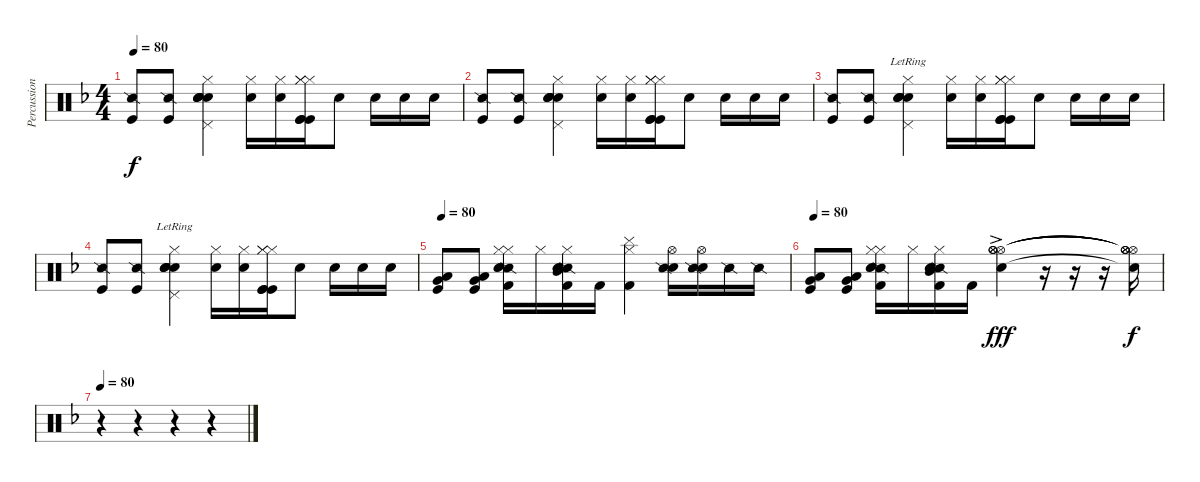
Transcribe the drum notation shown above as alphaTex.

\track ("Percussion" "Percussion") {instrument percussion}
\staff {score}
\articulation defaults
\ts (4 4)
\tempo 80
\clef neutral
\ks dminor
("Kick (hit)" "Snare (side stick) 2").8{dy f volume 14} ("Kick (hit)" "Snare (side stick) 2").8 ("Snare (hit) 2" "Snare (hit) 2" "Pedal Hi-Hat (hit)" "Hi-Hat (closed)" "Electric Snare (hit)" "Hand Clap (hit)").4 ("Hi-Hat (closed)" "Electric Snare (hit)").16 ("Hi-Hat (closed)" "Electric Snare (hit)").16 ("Hi-Hat (closed)" "Hi-Hat (closed)" "Hi-Hat (closed)" "Kick (hit)" "Kick (hit)" "Kick (hit)").16 "Hand Clap (hit)".8 "Snare (hit) 2".16 "Snare (hit) 2".16 "Snare (hit) 2".16 |
("Kick (hit)" "Snare (side stick) 2").8{volume 14} ("Kick (hit)" "Snare (side stick) 2").8 ("Snare (hit) 2" "Snare (hit) 2" "Pedal Hi-Hat (hit)" "Hi-Hat (closed)" "Electric Snare (hit)" "Hand Clap (hit)").4 ("Hi-Hat (closed)" "Electric Snare (hit)").16 ("Hi-Hat (closed)" "Electric Snare (hit)").16 ("Hi-Hat (closed)" "Hi-Hat (closed)" "Hi-Hat (closed)" "Kick (hit)" "Kick (hit)" "Kick (hit)").16 "Hand Clap (hit)".8 "Snare (hit) 2".16 "Snare (hit) 2".16 "Snare (hit) 2".16 |
("Kick (hit)" "Snare (side stick) 2").8{volume 14} ("Kick (hit)" "Snare (side stick) 2").8 ("Snare (hit) 2"{lr} "Snare (hit) 2"{lr} "Pedal Hi-Hat (hit)"{lr} "Hi-Hat (closed)"{lr} "Electric Snare (hit)"{lr} "Hand Clap (hit)"{lr}).4 ("Hi-Hat (closed)" "Electric Snare (hit)").16 ("Hi-Hat (closed)" "Electric Snare (hit)").16 ("Hi-Hat (closed)" "Hi-Hat (closed)" "Hi-Hat (closed)" "Kick (hit)" "Kick (hit)" "Kick (hit)").16 "Hand Clap (hit)".8 "Snare (hit) 2".16 "Snare (hit) 2".16 "Snare (hit) 2".16 |
("Kick (hit)" "Snare (side stick) 2").8{volume 14} ("Kick (hit)" "Snare (side stick) 2").8 ("Snare (hit) 2"{lr} "Snare (hit) 2"{lr} "Pedal Hi-Hat (hit)"{lr} "Hi-Hat (closed)"{lr} "Electric Snare (hit)"{lr} "Hand Clap (hit)"{lr}).4 ("Hi-Hat (closed)" "Electric Snare (hit)").16 ("Hi-Hat (closed)" "Electric Snare (hit)").16 ("Hi-Hat (closed)" "Hi-Hat (closed)" "Hi-Hat (closed)" "Kick (hit)" "Kick (hit)" "Kick (hit)").16 "Hand Clap (hit)".8 "Snare (hit) 2".16 "Snare (hit) 2".16 "Snare (hit) 2".16 |
\tempo 80
("Kick (hit)" "Low Floor Tom (hit)" "Very Low Tom (hit)").8{volume 14} ("Kick (hit)" "Low Floor Tom (hit)" "Very Low Tom (hit)").8 ("Kick (hit) 2" "Hi-Hat (closed)" "Snare (side stick) 2" "Snare (hit) 2" "Electric Snare (hit)" "Hi-Hat (closed)").16 "Hi-Hat (closed)".16 ("Kick (hit) 2" "Hi-Hat (closed)" "Snare (side stick) 2" "Snare (hit) 2" "Electric Snare (hit)" "Mid Tom (hit)").16 "Kick (hit) 2".16 ("Kick (hit) 2" "Hi-Hat (closed)" "Cymbal (hit)").4 ("Electric Snare (hit)" "Hi-Hat (open)" "Snare (side stick) 2").16 ("Electric Snare (hit)" "Hi-Hat (open)" "Snare (side stick) 2").16 "Snare (side stick) 2".16 "Snare (side stick) 2".16 |
\tempo 80
("Kick (hit)" "Low Floor Tom (hit)" "Very Low Tom (hit)").8{volume 14} ("Kick (hit)" "Low Floor Tom (hit)" "Very Low Tom (hit)").8 ("Kick (hit) 2" "Hi-Hat (closed)" "Snare (side stick) 2" "Snare (hit) 2" "Electric Snare (hit)" "Hi-Hat (closed)").16 "Hi-Hat (closed)".16 ("Kick (hit) 2" "Hi-Hat (closed)" "Snare (side stick) 2" "Snare (hit) 2" "Electric Snare (hit)" "Mid Tom (hit)").16 "Kick (hit) 2".16 ("Electric Snare (hit)"{ac} "Hi-Hat (open)"{ac} "Hi-Hat (open)"{ac} "Hi-Hat (open)"{ac} "Hi-Hat (open)"{ac}).4{dy fff} r.16 r.16 r.16 ("Electric Snare (hit)"{t} "Hi-Hat (open)"{t} "Hi-Hat (open)"{t} "Hi-Hat (open)"{t} "Hi-Hat (open)"{t}).16{dy f} |
\tempo 80
r.4 r.4{volume 14} r.4 r.4
